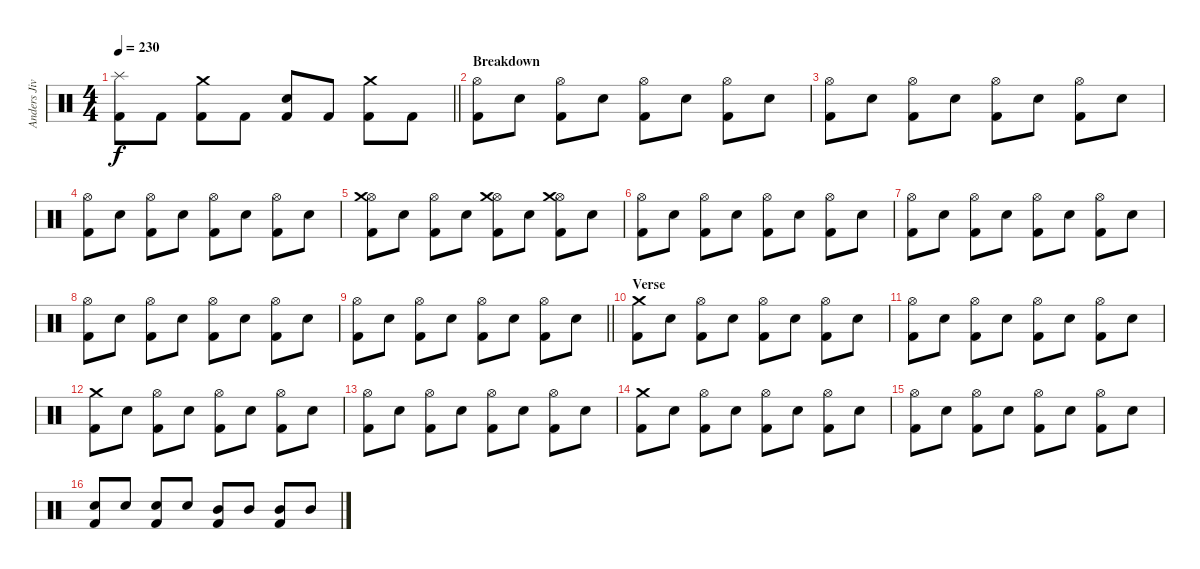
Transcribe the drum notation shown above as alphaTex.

\track ("Anders Jivarp" "Anders Jiv") {instrument percussion}
\staff {score}
\articulation defaults
\ts (4 4)
\tempo 230
\clef neutral
\barLineRight lightlight
\ks c
("Kick (hit) 2" "Splash (hit)").8{dy f} "Kick (hit) 2".8 ("Kick (hit) 2" "Crash medium (hit)").8 "Kick (hit) 2".8 ("Kick (hit) 2" "Electric Snare (hit)").8 "Kick (hit) 2".8 ("Kick (hit) 2" "Crash medium (hit)").8 "Kick (hit) 2".8 |
\section ("" "Breakdown")
("Kick (hit) 2" "Hi-Hat (open)").8 "Electric Snare (hit)".8 ("Kick (hit) 2" "Hi-Hat (open)").8 "Electric Snare (hit)".8 ("Kick (hit) 2" "Hi-Hat (open)").8 "Electric Snare (hit)".8 ("Kick (hit) 2" "Hi-Hat (open)").8 "Electric Snare (hit)".8 |
("Kick (hit) 2" "Hi-Hat (open)").8 "Electric Snare (hit)".8 ("Kick (hit) 2" "Hi-Hat (open)").8 "Electric Snare (hit)".8 ("Kick (hit) 2" "Hi-Hat (open)").8 "Electric Snare (hit)".8 ("Kick (hit) 2" "Hi-Hat (open)").8 "Electric Snare (hit)".8 |
("Kick (hit) 2" "Hi-Hat (open)").8 "Electric Snare (hit)".8 ("Kick (hit) 2" "Hi-Hat (open)").8 "Electric Snare (hit)".8 ("Kick (hit) 2" "Hi-Hat (open)").8 "Electric Snare (hit)".8 ("Kick (hit) 2" "Hi-Hat (open)").8 "Electric Snare (hit)".8 |
("Kick (hit) 2" "Hi-Hat (open)" "Crash medium (hit)").8 "Electric Snare (hit)".8 ("Kick (hit) 2" "Hi-Hat (open)").8 "Electric Snare (hit)".8 ("Kick (hit) 2" "Hi-Hat (open)" "Crash medium (hit)").8 "Electric Snare (hit)".8 ("Kick (hit) 2" "Hi-Hat (open)" "Crash medium (hit)").8 "Electric Snare (hit)".8 |
("Kick (hit) 2" "Hi-Hat (open)").8 "Electric Snare (hit)".8 ("Kick (hit) 2" "Hi-Hat (open)").8 "Electric Snare (hit)".8 ("Kick (hit) 2" "Hi-Hat (open)").8 "Electric Snare (hit)".8 ("Kick (hit) 2" "Hi-Hat (open)").8 "Electric Snare (hit)".8 |
("Kick (hit) 2" "Hi-Hat (open)").8 "Electric Snare (hit)".8 ("Kick (hit) 2" "Hi-Hat (open)").8 "Electric Snare (hit)".8 ("Kick (hit) 2" "Hi-Hat (open)").8 "Electric Snare (hit)".8 ("Kick (hit) 2" "Hi-Hat (open)").8 "Electric Snare (hit)".8 |
("Kick (hit) 2" "Hi-Hat (open)").8 "Electric Snare (hit)".8 ("Kick (hit) 2" "Hi-Hat (open)").8 "Electric Snare (hit)".8 ("Kick (hit) 2" "Hi-Hat (open)").8 "Electric Snare (hit)".8 ("Kick (hit) 2" "Hi-Hat (open)").8 "Electric Snare (hit)".8 |
\barLineRight lightlight
("Kick (hit) 2" "Hi-Hat (open)").8 "Electric Snare (hit)".8 ("Kick (hit) 2" "Hi-Hat (open)").8 "Electric Snare (hit)".8 ("Kick (hit) 2" "Hi-Hat (open)").8 "Electric Snare (hit)".8 ("Kick (hit) 2" "Hi-Hat (open)").8 "Electric Snare (hit)".8 |
\section ("" "Verse")
("Kick (hit) 2" "Crash medium (hit)").8 "Electric Snare (hit)".8 ("Kick (hit) 2" "Hi-Hat (open)").8 "Electric Snare (hit)".8 ("Kick (hit) 2" "Hi-Hat (open)").8 "Electric Snare (hit)".8 ("Kick (hit) 2" "Hi-Hat (open)").8 "Electric Snare (hit)".8 |
("Kick (hit) 2" "Hi-Hat (open)").8 "Electric Snare (hit)".8 ("Kick (hit) 2" "Hi-Hat (open)").8 "Electric Snare (hit)".8 ("Kick (hit) 2" "Hi-Hat (open)").8 "Electric Snare (hit)".8 ("Kick (hit) 2" "Hi-Hat (open)").8 "Electric Snare (hit)".8 |
("Kick (hit) 2" "Crash medium (hit)").8 "Electric Snare (hit)".8 ("Kick (hit) 2" "Hi-Hat (open)").8 "Electric Snare (hit)".8 ("Kick (hit) 2" "Hi-Hat (open)").8 "Electric Snare (hit)".8 ("Kick (hit) 2" "Hi-Hat (open)").8 "Electric Snare (hit)".8 |
("Kick (hit) 2" "Hi-Hat (open)").8 "Electric Snare (hit)".8 ("Kick (hit) 2" "Hi-Hat (open)").8 "Electric Snare (hit)".8 ("Kick (hit) 2" "Hi-Hat (open)").8 "Electric Snare (hit)".8 ("Kick (hit) 2" "Hi-Hat (open)").8 "Electric Snare (hit)".8 |
("Kick (hit) 2" "Crash medium (hit)").8 "Electric Snare (hit)".8 ("Kick (hit) 2" "Hi-Hat (open)").8 "Electric Snare (hit)".8 ("Kick (hit) 2" "Hi-Hat (open)").8 "Electric Snare (hit)".8 ("Kick (hit) 2" "Hi-Hat (open)").8 "Electric Snare (hit)".8 |
("Kick (hit) 2" "Hi-Hat (open)").8 "Electric Snare (hit)".8 ("Kick (hit) 2" "Hi-Hat (open)").8 "Electric Snare (hit)".8 ("Kick (hit) 2" "Hi-Hat (open)").8 "Electric Snare (hit)".8 ("Kick (hit) 2" "Hi-Hat (open)").8 "Electric Snare (hit)".8 |
("Kick (hit) 2" "Electric Snare (hit)").8 "Electric Snare (hit)".8 ("Kick (hit) 2" "Electric Snare (hit)").8 "Electric Snare (hit)".8 ("Kick (hit) 2" "Mid Tom (hit)").8 "Mid Tom (hit)".8 ("Kick (hit) 2" "Mid Tom (hit)").8 "Mid Tom (hit)".8
